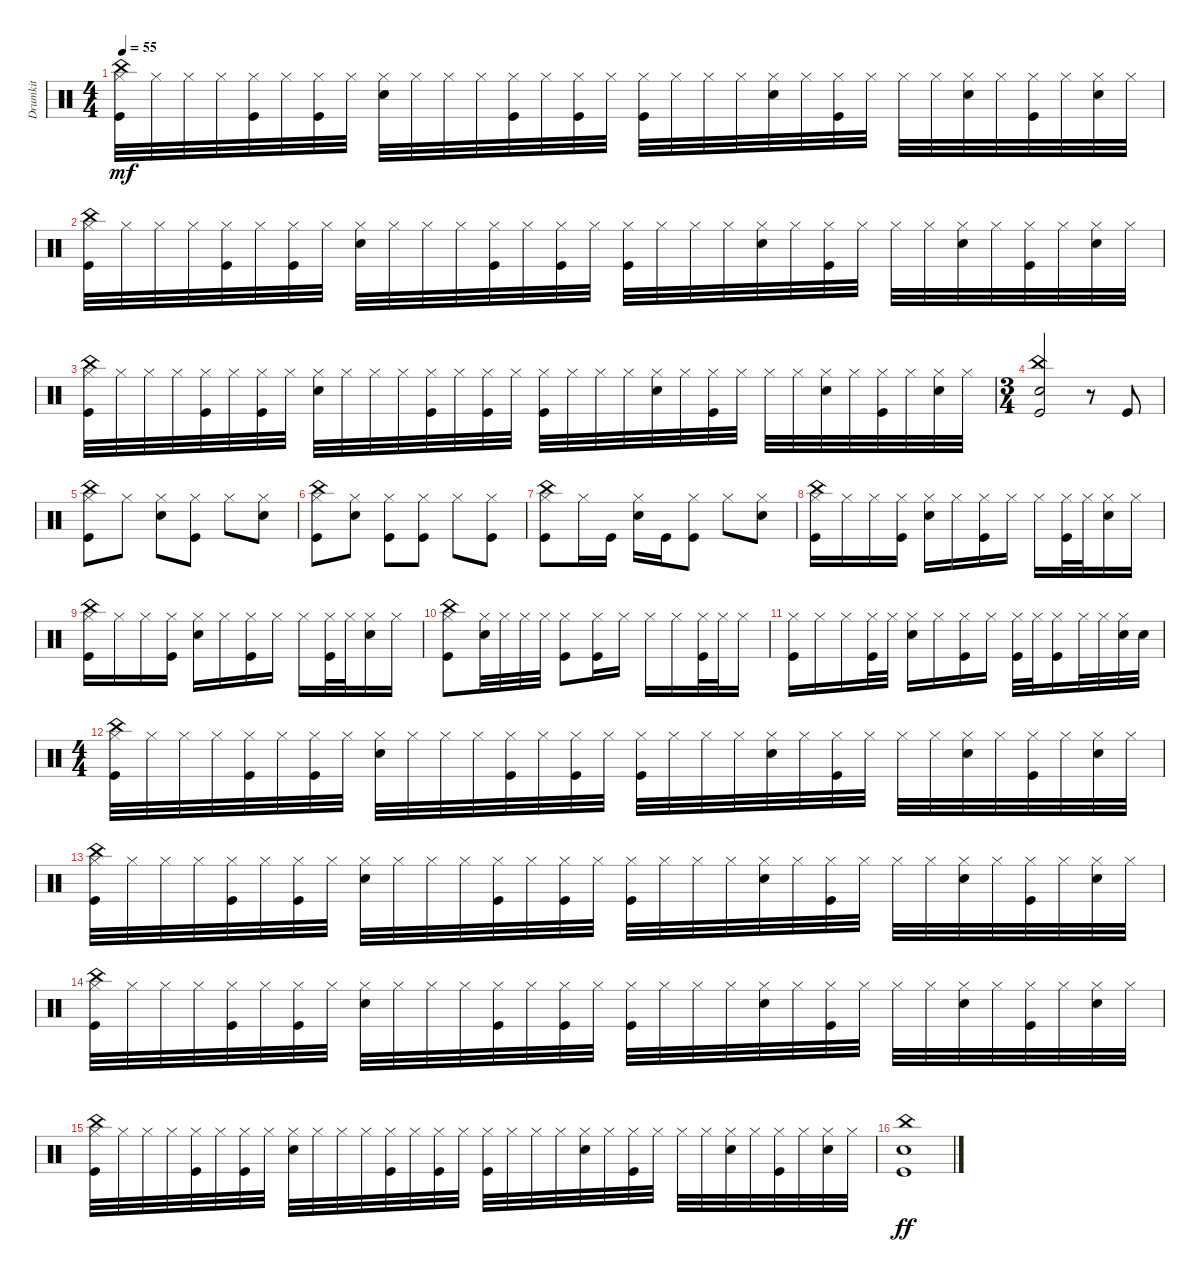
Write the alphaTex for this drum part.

\track ("Drumkit" "Drumkit") {instrument percussion}
\staff {score}
\articulation defaults
\ts (4 4)
\tempo 55
\clef neutral
\ks c
("Hi-Hat (closed)" "Kick (hit)" "China (hit)").32{dy mf} "Hi-Hat (closed)".32 "Hi-Hat (closed)".32 "Hi-Hat (closed)".32 ("Hi-Hat (closed)" "Kick (hit)").32 "Hi-Hat (closed)".32 ("Hi-Hat (closed)" "Kick (hit)").32 "Hi-Hat (closed)".32 ("Hi-Hat (closed)" "Snare (hit) 2").32 "Hi-Hat (closed)".32 "Hi-Hat (closed)".32 "Hi-Hat (closed)".32 ("Hi-Hat (closed)" "Kick (hit)").32 "Hi-Hat (closed)".32 ("Hi-Hat (closed)" "Kick (hit)").32 "Hi-Hat (closed)".32 ("Hi-Hat (closed)" "Kick (hit)").32 "Hi-Hat (closed)".32 "Hi-Hat (closed)".32 "Hi-Hat (closed)".32 ("Hi-Hat (closed)" "Snare (hit) 2").32 "Hi-Hat (closed)".32 ("Hi-Hat (closed)" "Kick (hit)").32 "Hi-Hat (closed)".32 "Hi-Hat (closed)".32 "Hi-Hat (closed)".32 ("Hi-Hat (closed)" "Snare (hit) 2").32 "Hi-Hat (closed)".32 ("Hi-Hat (closed)" "Kick (hit)").32 "Hi-Hat (closed)".32 ("Hi-Hat (closed)" "Snare (hit) 2").32 "Hi-Hat (closed)".32 |
("Hi-Hat (closed)" "Kick (hit)" "China (hit)").32 "Hi-Hat (closed)".32 "Hi-Hat (closed)".32 "Hi-Hat (closed)".32 ("Hi-Hat (closed)" "Kick (hit)").32 "Hi-Hat (closed)".32 ("Hi-Hat (closed)" "Kick (hit)").32 "Hi-Hat (closed)".32 ("Hi-Hat (closed)" "Snare (hit) 2").32 "Hi-Hat (closed)".32 "Hi-Hat (closed)".32 "Hi-Hat (closed)".32 ("Hi-Hat (closed)" "Kick (hit)").32 "Hi-Hat (closed)".32 ("Hi-Hat (closed)" "Kick (hit)").32 "Hi-Hat (closed)".32 ("Hi-Hat (closed)" "Kick (hit)").32 "Hi-Hat (closed)".32 "Hi-Hat (closed)".32 "Hi-Hat (closed)".32 ("Hi-Hat (closed)" "Snare (hit) 2").32 "Hi-Hat (closed)".32 ("Hi-Hat (closed)" "Kick (hit)").32 "Hi-Hat (closed)".32 "Hi-Hat (closed)".32 "Hi-Hat (closed)".32 ("Hi-Hat (closed)" "Snare (hit) 2").32 "Hi-Hat (closed)".32 ("Hi-Hat (closed)" "Kick (hit)").32 "Hi-Hat (closed)".32 ("Hi-Hat (closed)" "Snare (hit) 2").32 "Hi-Hat (closed)".32 |
("Hi-Hat (closed)" "Kick (hit)" "China (hit)").32 "Hi-Hat (closed)".32 "Hi-Hat (closed)".32 "Hi-Hat (closed)".32 ("Hi-Hat (closed)" "Kick (hit)").32 "Hi-Hat (closed)".32 ("Hi-Hat (closed)" "Kick (hit)").32 "Hi-Hat (closed)".32 ("Hi-Hat (closed)" "Snare (hit) 2").32 "Hi-Hat (closed)".32 "Hi-Hat (closed)".32 "Hi-Hat (closed)".32 ("Hi-Hat (closed)" "Kick (hit)").32 "Hi-Hat (closed)".32 ("Hi-Hat (closed)" "Kick (hit)").32 "Hi-Hat (closed)".32 ("Hi-Hat (closed)" "Kick (hit)").32 "Hi-Hat (closed)".32 "Hi-Hat (closed)".32 "Hi-Hat (closed)".32 ("Hi-Hat (closed)" "Snare (hit) 2").32 "Hi-Hat (closed)".32 ("Hi-Hat (closed)" "Kick (hit)").32 "Hi-Hat (closed)".32 "Hi-Hat (closed)".32 "Hi-Hat (closed)".32 ("Hi-Hat (closed)" "Snare (hit) 2").32 "Hi-Hat (closed)".32 ("Hi-Hat (closed)" "Kick (hit)").32 "Hi-Hat (closed)".32 ("Hi-Hat (closed)" "Snare (hit) 2").32 "Hi-Hat (closed)".32 |
\ts (3 4)
("China (hit)" "Kick (hit)" "Snare (hit) 2").2 r.8 "Kick (hit)".8 |
("Hi-Hat (closed)" "Kick (hit)" "China (hit)").8 "Hi-Hat (closed)".8 ("Hi-Hat (closed)" "Snare (hit) 2").8 ("Hi-Hat (closed)" "Kick (hit)").8 "Hi-Hat (closed)".8 ("Hi-Hat (closed)" "Snare (hit) 2").8 |
("Hi-Hat (closed)" "Kick (hit)" "China (hit)").8 ("Hi-Hat (closed)" "Snare (hit) 2").8 ("Hi-Hat (closed)" "Kick (hit)").8 ("Hi-Hat (closed)" "Kick (hit)").8 "Hi-Hat (closed)".8 ("Hi-Hat (closed)" "Kick (hit)").8 |
("Hi-Hat (closed)" "Kick (hit)" "China (hit)").8 "Hi-Hat (closed)".16 "Kick (hit)".16 ("Snare (hit) 2" "Hi-Hat (closed)").16 "Kick (hit)".16 ("Kick (hit)" "Hi-Hat (closed)").8 "Hi-Hat (closed)".8 ("Hi-Hat (closed)" "Snare (hit) 2").8 |
("Hi-Hat (closed)" "Kick (hit)" "China (hit)").16 "Hi-Hat (closed)".16 "Hi-Hat (closed)".16 ("Hi-Hat (closed)" "Kick (hit)").16 ("Hi-Hat (closed)" "Snare (hit) 2").16 "Hi-Hat (closed)".16 ("Hi-Hat (closed)" "Kick (hit)").16 "Hi-Hat (closed)".16 "Hi-Hat (closed)".16 ("Hi-Hat (closed)" "Kick (hit)").32 "Hi-Hat (closed)".32 ("Hi-Hat (closed)" "Snare (hit) 2").16 "Hi-Hat (closed)".16 |
("Hi-Hat (closed)" "Kick (hit)" "China (hit)").16 "Hi-Hat (closed)".16 "Hi-Hat (closed)".16 ("Hi-Hat (closed)" "Kick (hit)").16 ("Hi-Hat (closed)" "Snare (hit) 2").16 "Hi-Hat (closed)".16 ("Hi-Hat (closed)" "Kick (hit)").16 "Hi-Hat (closed)".16 "Hi-Hat (closed)".16 ("Hi-Hat (closed)" "Kick (hit)").32 "Hi-Hat (closed)".32 ("Hi-Hat (closed)" "Snare (hit) 2").16 "Hi-Hat (closed)".16 |
("Hi-Hat (closed)" "Kick (hit)" "China (hit)").8 ("Hi-Hat (closed)" "Snare (hit) 2").32 "Hi-Hat (closed)".32 "Hi-Hat (closed)".32 "Hi-Hat (closed)".32 ("Hi-Hat (closed)" "Kick (hit)").8 ("Hi-Hat (closed)" "Kick (hit)").16 "Hi-Hat (closed)".16 "Hi-Hat (closed)".16 "Hi-Hat (closed)".16 ("Hi-Hat (closed)" "Kick (hit)").32 "Hi-Hat (closed)".32 "Hi-Hat (closed)".16 |
("Hi-Hat (closed)" "Kick (hit)").16 "Hi-Hat (closed)".16 "Hi-Hat (closed)".16 ("Hi-Hat (closed)" "Kick (hit)").32 "Hi-Hat (closed)".32 ("Hi-Hat (closed)" "Snare (hit) 2").16 "Hi-Hat (closed)".16 ("Hi-Hat (closed)" "Kick (hit)").16 "Hi-Hat (closed)".16 ("Hi-Hat (closed)" "Kick (hit)").32 "Hi-Hat (closed)".32 ("Hi-Hat (closed)" "Kick (hit)").16 "Hi-Hat (closed)".32 "Hi-Hat (closed)".32 ("Hi-Hat (closed)" "Snare (hit) 2").32 "Snare (hit) 2".32 |
\ts (4 4)
("Hi-Hat (closed)" "Kick (hit)" "China (hit)").32 "Hi-Hat (closed)".32 "Hi-Hat (closed)".32 "Hi-Hat (closed)".32 ("Hi-Hat (closed)" "Kick (hit)").32 "Hi-Hat (closed)".32 ("Hi-Hat (closed)" "Kick (hit)").32 "Hi-Hat (closed)".32 ("Hi-Hat (closed)" "Snare (hit) 2").32 "Hi-Hat (closed)".32 "Hi-Hat (closed)".32 "Hi-Hat (closed)".32 ("Hi-Hat (closed)" "Kick (hit)").32 "Hi-Hat (closed)".32 ("Hi-Hat (closed)" "Kick (hit)").32 "Hi-Hat (closed)".32 ("Hi-Hat (closed)" "Kick (hit)").32 "Hi-Hat (closed)".32 "Hi-Hat (closed)".32 "Hi-Hat (closed)".32 ("Hi-Hat (closed)" "Snare (hit) 2").32 "Hi-Hat (closed)".32 ("Hi-Hat (closed)" "Kick (hit)").32 "Hi-Hat (closed)".32 "Hi-Hat (closed)".32 "Hi-Hat (closed)".32 ("Hi-Hat (closed)" "Snare (hit) 2").32 "Hi-Hat (closed)".32 ("Hi-Hat (closed)" "Kick (hit)").32 "Hi-Hat (closed)".32 ("Hi-Hat (closed)" "Snare (hit) 2").32 "Hi-Hat (closed)".32 |
("Hi-Hat (closed)" "Kick (hit)" "China (hit)").32 "Hi-Hat (closed)".32 "Hi-Hat (closed)".32 "Hi-Hat (closed)".32 ("Hi-Hat (closed)" "Kick (hit)").32 "Hi-Hat (closed)".32 ("Hi-Hat (closed)" "Kick (hit)").32 "Hi-Hat (closed)".32 ("Hi-Hat (closed)" "Snare (hit) 2").32 "Hi-Hat (closed)".32 "Hi-Hat (closed)".32 "Hi-Hat (closed)".32 ("Hi-Hat (closed)" "Kick (hit)").32 "Hi-Hat (closed)".32 ("Hi-Hat (closed)" "Kick (hit)").32 "Hi-Hat (closed)".32 ("Hi-Hat (closed)" "Kick (hit)").32 "Hi-Hat (closed)".32 "Hi-Hat (closed)".32 "Hi-Hat (closed)".32 ("Hi-Hat (closed)" "Snare (hit) 2").32 "Hi-Hat (closed)".32 ("Hi-Hat (closed)" "Kick (hit)").32 "Hi-Hat (closed)".32 "Hi-Hat (closed)".32 "Hi-Hat (closed)".32 ("Hi-Hat (closed)" "Snare (hit) 2").32 "Hi-Hat (closed)".32 ("Hi-Hat (closed)" "Kick (hit)").32 "Hi-Hat (closed)".32 ("Hi-Hat (closed)" "Snare (hit) 2").32 "Hi-Hat (closed)".32 |
("Hi-Hat (closed)" "Kick (hit)" "China (hit)").32 "Hi-Hat (closed)".32 "Hi-Hat (closed)".32 "Hi-Hat (closed)".32 ("Hi-Hat (closed)" "Kick (hit)").32 "Hi-Hat (closed)".32 ("Hi-Hat (closed)" "Kick (hit)").32 "Hi-Hat (closed)".32 ("Hi-Hat (closed)" "Snare (hit) 2").32 "Hi-Hat (closed)".32 "Hi-Hat (closed)".32 "Hi-Hat (closed)".32 ("Hi-Hat (closed)" "Kick (hit)").32 "Hi-Hat (closed)".32 ("Hi-Hat (closed)" "Kick (hit)").32 "Hi-Hat (closed)".32 ("Hi-Hat (closed)" "Kick (hit)").32 "Hi-Hat (closed)".32 "Hi-Hat (closed)".32 "Hi-Hat (closed)".32 ("Hi-Hat (closed)" "Snare (hit) 2").32 "Hi-Hat (closed)".32 ("Hi-Hat (closed)" "Kick (hit)").32 "Hi-Hat (closed)".32 "Hi-Hat (closed)".32 "Hi-Hat (closed)".32 ("Hi-Hat (closed)" "Snare (hit) 2").32 "Hi-Hat (closed)".32 ("Hi-Hat (closed)" "Kick (hit)").32 "Hi-Hat (closed)".32 ("Hi-Hat (closed)" "Snare (hit) 2").32 "Hi-Hat (closed)".32 |
("Hi-Hat (closed)" "Kick (hit)" "China (hit)").32 "Hi-Hat (closed)".32 "Hi-Hat (closed)".32 "Hi-Hat (closed)".32 ("Hi-Hat (closed)" "Kick (hit)").32 "Hi-Hat (closed)".32 ("Hi-Hat (closed)" "Kick (hit)").32 "Hi-Hat (closed)".32 ("Hi-Hat (closed)" "Snare (hit) 2").32 "Hi-Hat (closed)".32 "Hi-Hat (closed)".32 "Hi-Hat (closed)".32 ("Hi-Hat (closed)" "Kick (hit)").32 "Hi-Hat (closed)".32 ("Hi-Hat (closed)" "Kick (hit)").32 "Hi-Hat (closed)".32 ("Hi-Hat (closed)" "Kick (hit)").32 "Hi-Hat (closed)".32 "Hi-Hat (closed)".32 "Hi-Hat (closed)".32 ("Hi-Hat (closed)" "Snare (hit) 2").32 "Hi-Hat (closed)".32 ("Hi-Hat (closed)" "Kick (hit)").32 "Hi-Hat (closed)".32 "Hi-Hat (closed)".32 "Hi-Hat (closed)".32 ("Hi-Hat (closed)" "Snare (hit) 2").32 "Hi-Hat (closed)".32 ("Hi-Hat (closed)" "Kick (hit)").32 "Hi-Hat (closed)".32 ("Hi-Hat (closed)" "Snare (hit) 2").32 "Hi-Hat (closed)".32 |
("China (hit)" "Kick (hit)" "Snare (hit) 2").1{dy ff}
